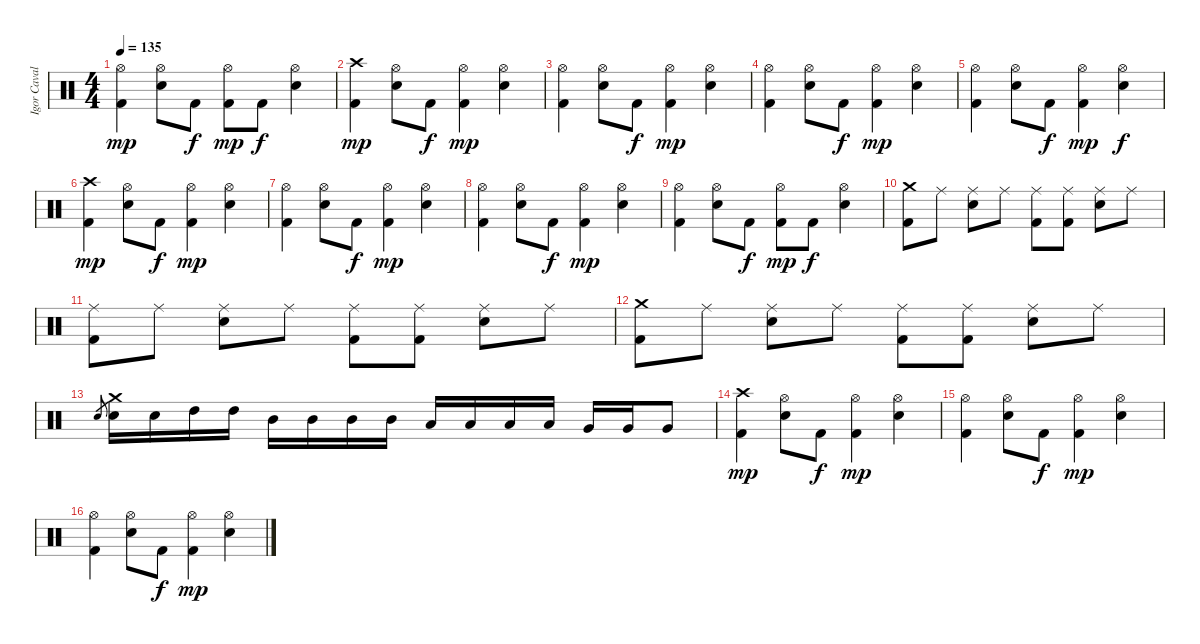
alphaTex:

\track ("Igor Cavalera" "Igor Caval") {instrument percussion}
\staff {score}
\articulation defaults
\ts (4 4)
\tempo 135
\clef neutral
\ks c
("Hi-Hat (open)" "Kick (hit) 2").4{dy mp} ("Hi-Hat (open)" "Electric Snare (hit)").8 "Kick (hit) 2".8{dy f} ("Hi-Hat (open)" "Kick (hit) 2").8{dy mp} "Kick (hit) 2".8{dy f} ("Hi-Hat (open)" "Electric Snare (hit)").4 |
("Crash high (hit)" "Kick (hit) 2").4{dy mp} ("Hi-Hat (open)" "Electric Snare (hit)").8 "Kick (hit) 2".8{dy f} ("Hi-Hat (open)" "Kick (hit) 2").4{dy mp} ("Hi-Hat (open)" "Electric Snare (hit)").4 |
("Hi-Hat (open)" "Kick (hit) 2").4 ("Hi-Hat (open)" "Electric Snare (hit)").8 "Kick (hit) 2".8{dy f} ("Hi-Hat (open)" "Kick (hit) 2").4{dy mp} ("Hi-Hat (open)" "Electric Snare (hit)").4 |
("Hi-Hat (open)" "Kick (hit) 2").4 ("Hi-Hat (open)" "Electric Snare (hit)").8 "Kick (hit) 2".8{dy f} ("Hi-Hat (open)" "Kick (hit) 2").4{dy mp} ("Hi-Hat (open)" "Electric Snare (hit)").4 |
("Hi-Hat (open)" "Kick (hit) 2").4 ("Hi-Hat (open)" "Electric Snare (hit)").8 "Kick (hit) 2".8{dy f} ("Hi-Hat (open)" "Kick (hit) 2").4{dy mp} ("Hi-Hat (open)" "Electric Snare (hit)").4{dy f} |
("Crash high (hit)" "Kick (hit) 2").4{dy mp} ("Hi-Hat (open)" "Electric Snare (hit)").8 "Kick (hit) 2".8{dy f} ("Hi-Hat (open)" "Kick (hit) 2").4{dy mp} ("Hi-Hat (open)" "Electric Snare (hit)").4 |
("Hi-Hat (open)" "Kick (hit) 2").4 ("Hi-Hat (open)" "Electric Snare (hit)").8 "Kick (hit) 2".8{dy f} ("Hi-Hat (open)" "Kick (hit) 2").4{dy mp} ("Hi-Hat (open)" "Electric Snare (hit)").4 |
("Hi-Hat (open)" "Kick (hit) 2").4 ("Hi-Hat (open)" "Electric Snare (hit)").8 "Kick (hit) 2".8{dy f} ("Hi-Hat (open)" "Kick (hit) 2").4{dy mp} ("Hi-Hat (open)" "Electric Snare (hit)").4 |
("Hi-Hat (open)" "Kick (hit) 2").4 ("Hi-Hat (open)" "Electric Snare (hit)").8 "Kick (hit) 2".8{dy f} ("Hi-Hat (open)" "Kick (hit) 2").8{dy mp} "Kick (hit) 2".8{dy f} ("Hi-Hat (open)" "Electric Snare (hit)").4 |
("Crash medium (hit)" "Kick (hit) 2").8 "Ride (middle)".8 ("Ride (middle)" "Snare (hit) 2").8 "Ride (middle)".8 ("Ride (middle)" "Kick (hit) 2").8 ("Ride (middle)" "Kick (hit) 2").8 ("Ride (middle)" "Snare (hit) 2").8 "Ride (middle)".8 |
("Ride (middle)" "Kick (hit) 2").8 "Ride (middle)".8 ("Ride (middle)" "Snare (hit) 2").8 "Ride (middle)".8 ("Ride (middle)" "Kick (hit) 2").8 ("Ride (middle)" "Kick (hit) 2").8 ("Ride (middle)" "Snare (hit) 2").8 "Ride (middle)".8 |
("Crash medium (hit)" "Kick (hit) 2").8 "Ride (middle)".8 ("Ride (middle)" "Snare (hit) 2").8 "Ride (middle)".8 ("Ride (middle)" "Kick (hit) 2").8 ("Ride (middle)" "Kick (hit) 2").8 ("Ride (middle)" "Snare (hit) 2").8 "Ride (middle)".8 |
"Snare (hit) 2".8{gr} ("Crash medium (hit)" "Snare (hit) 2").16 "Snare (hit) 2".16 "High Tom (hit)".16 "High Tom (hit)".16 "Mid Tom (hit)".16 "Mid Tom (hit)".16 "Mid Tom (hit)".16 "Mid Tom (hit)".16 "Low Tom (hit)".16 "Low Tom (hit)".16 "Low Tom (hit)".16 "Low Tom (hit)".16 "Very Low Tom (hit)".16 "Very Low Tom (hit)".16 "Very Low Tom (hit)".8 |
("Crash high (hit)" "Kick (hit) 2").4{dy mp} ("Hi-Hat (open)" "Electric Snare (hit)").8 "Kick (hit) 2".8{dy f} ("Hi-Hat (open)" "Kick (hit) 2").4{dy mp} ("Hi-Hat (open)" "Electric Snare (hit)").4 |
("Hi-Hat (open)" "Kick (hit) 2").4 ("Hi-Hat (open)" "Electric Snare (hit)").8 "Kick (hit) 2".8{dy f} ("Hi-Hat (open)" "Kick (hit) 2").4{dy mp} ("Hi-Hat (open)" "Electric Snare (hit)").4 |
("Hi-Hat (open)" "Kick (hit) 2").4 ("Hi-Hat (open)" "Electric Snare (hit)").8 "Kick (hit) 2".8{dy f} ("Hi-Hat (open)" "Kick (hit) 2").4{dy mp} ("Hi-Hat (open)" "Electric Snare (hit)").4
